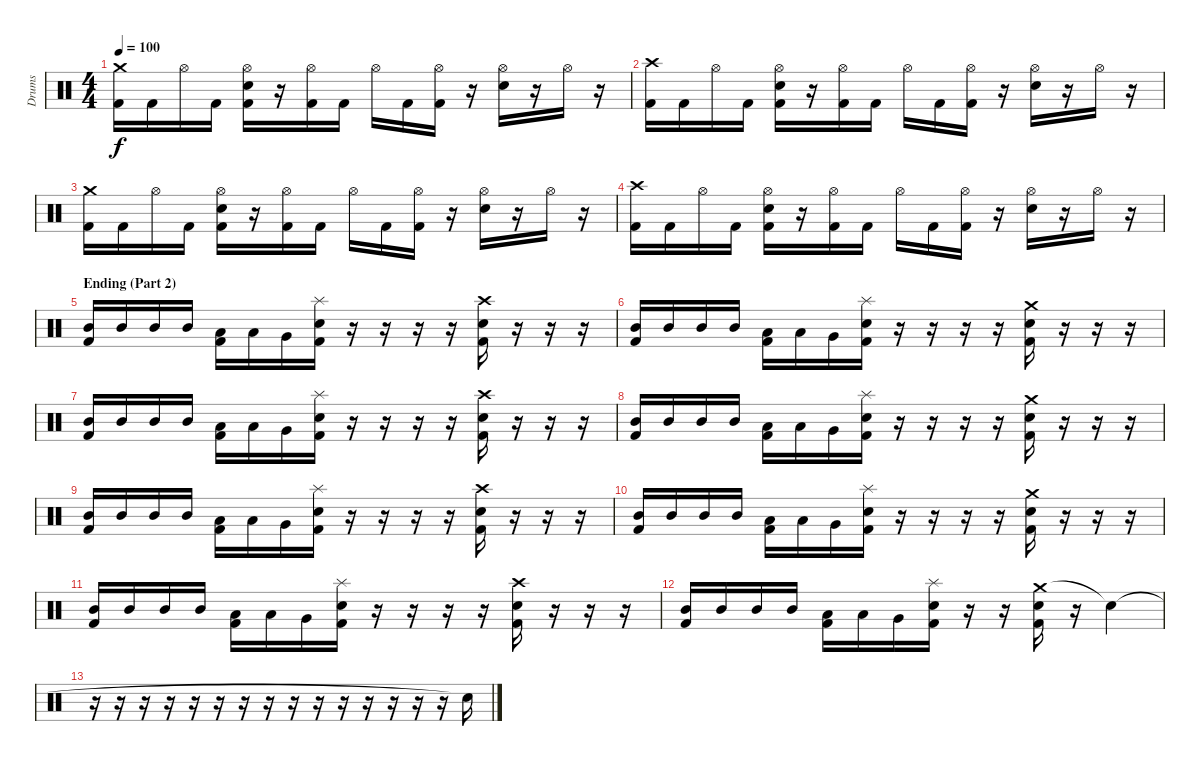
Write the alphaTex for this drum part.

\track ("Drums" "Drums") {instrument percussion}
\staff {score}
\articulation defaults
\ts (4 4)
\tempo 100
\clef neutral
\ks c
("Crash medium (hit)" "Kick (hit) 2").16{dy f} "Kick (hit) 2".16 "Hi-Hat (open)".16 "Kick (hit) 2".16 ("Hi-Hat (open)" "Snare (hit) 2" "Kick (hit) 2").16 r.16 ("Hi-Hat (open)" "Kick (hit) 2").16 "Kick (hit) 2".16 "Hi-Hat (open)".16 "Kick (hit) 2".16 ("Hi-Hat (open)" "Kick (hit) 2").16 r.16 ("Hi-Hat (open)" "Snare (hit) 2").16 r.16 "Hi-Hat (open)".16 r.16 |
("Crash high (hit)" "Kick (hit) 2").16 "Kick (hit) 2".16 "Hi-Hat (open)".16 "Kick (hit) 2".16 ("Hi-Hat (open)" "Snare (hit) 2" "Kick (hit) 2").16 r.16 ("Hi-Hat (open)" "Kick (hit) 2").16 "Kick (hit) 2".16 "Hi-Hat (open)".16 "Kick (hit) 2".16 ("Hi-Hat (open)" "Kick (hit) 2").16 r.16 ("Hi-Hat (open)" "Snare (hit) 2").16 r.16 "Hi-Hat (open)".16 r.16 |
("Crash medium (hit)" "Kick (hit) 2").16 "Kick (hit) 2".16 "Hi-Hat (open)".16 "Kick (hit) 2".16 ("Hi-Hat (open)" "Snare (hit) 2" "Kick (hit) 2").16 r.16 ("Hi-Hat (open)" "Kick (hit) 2").16 "Kick (hit) 2".16 "Hi-Hat (open)".16 "Kick (hit) 2".16 ("Hi-Hat (open)" "Kick (hit) 2").16 r.16 ("Hi-Hat (open)" "Snare (hit) 2").16 r.16 "Hi-Hat (open)".16 r.16 |
("Crash high (hit)" "Kick (hit) 2").16 "Kick (hit) 2".16 "Hi-Hat (open)".16 "Kick (hit) 2".16 ("Hi-Hat (open)" "Snare (hit) 2" "Kick (hit) 2").16 r.16 ("Hi-Hat (open)" "Kick (hit) 2").16 "Kick (hit) 2".16 "Hi-Hat (open)".16 "Kick (hit) 2".16 ("Hi-Hat (open)" "Kick (hit) 2").16 r.16 ("Hi-Hat (open)" "Snare (hit) 2").16 r.16 "Hi-Hat (open)".16 r.16 |
\section ("" "Ending (Part 2)")
("Mid Tom (hit)" "Kick (hit) 2").16 "Mid Tom (hit)".16 "Mid Tom (hit)".16 "Mid Tom (hit)".16 ("Low Tom (hit)" "Kick (hit) 2").16 "Low Tom (hit)".16 "Very Low Tom (hit)".16 ("Splash (hit)" "Snare (hit) 2" "Kick (hit) 2").16 r.16 r.16 r.16 r.16 ("Crash high (hit)" "Snare (hit) 2" "Kick (hit) 2").16 r.16 r.16 r.16 |
("Mid Tom (hit)" "Kick (hit) 2").16 "Mid Tom (hit)".16 "Mid Tom (hit)".16 "Mid Tom (hit)".16 ("Low Tom (hit)" "Kick (hit) 2").16 "Low Tom (hit)".16 "Very Low Tom (hit)".16 ("Splash (hit)" "Snare (hit) 2" "Kick (hit) 2").16 r.16 r.16 r.16 r.16 ("Crash medium (hit)" "Snare (hit) 2" "Kick (hit) 2").16 r.16 r.16 r.16 |
("Mid Tom (hit)" "Kick (hit) 2").16 "Mid Tom (hit)".16 "Mid Tom (hit)".16 "Mid Tom (hit)".16 ("Low Tom (hit)" "Kick (hit) 2").16 "Low Tom (hit)".16 "Very Low Tom (hit)".16 ("Splash (hit)" "Snare (hit) 2" "Kick (hit) 2").16 r.16 r.16 r.16 r.16 ("Crash high (hit)" "Snare (hit) 2" "Kick (hit) 2").16 r.16 r.16 r.16 |
("Mid Tom (hit)" "Kick (hit) 2").16 "Mid Tom (hit)".16 "Mid Tom (hit)".16 "Mid Tom (hit)".16 ("Low Tom (hit)" "Kick (hit) 2").16 "Low Tom (hit)".16 "Very Low Tom (hit)".16 ("Splash (hit)" "Snare (hit) 2" "Kick (hit) 2").16 r.16 r.16 r.16 r.16 ("Crash medium (hit)" "Snare (hit) 2" "Kick (hit) 2").16 r.16 r.16 r.16 |
("Mid Tom (hit)" "Kick (hit) 2").16 "Mid Tom (hit)".16 "Mid Tom (hit)".16 "Mid Tom (hit)".16 ("Low Tom (hit)" "Kick (hit) 2").16 "Low Tom (hit)".16 "Very Low Tom (hit)".16 ("Splash (hit)" "Snare (hit) 2" "Kick (hit) 2").16 r.16 r.16 r.16 r.16 ("Crash high (hit)" "Snare (hit) 2" "Kick (hit) 2").16 r.16 r.16 r.16 |
("Mid Tom (hit)" "Kick (hit) 2").16 "Mid Tom (hit)".16 "Mid Tom (hit)".16 "Mid Tom (hit)".16 ("Low Tom (hit)" "Kick (hit) 2").16 "Low Tom (hit)".16 "Very Low Tom (hit)".16 ("Splash (hit)" "Snare (hit) 2" "Kick (hit) 2").16 r.16 r.16 r.16 r.16 ("Crash medium (hit)" "Snare (hit) 2" "Kick (hit) 2").16 r.16 r.16 r.16 |
("Mid Tom (hit)" "Kick (hit) 2").16 "Mid Tom (hit)".16 "Mid Tom (hit)".16 "Mid Tom (hit)".16 ("Low Tom (hit)" "Kick (hit) 2").16 "Low Tom (hit)".16 "Very Low Tom (hit)".16 ("Splash (hit)" "Snare (hit) 2" "Kick (hit) 2").16 r.16 r.16 r.16 r.16 ("Crash high (hit)" "Snare (hit) 2" "Kick (hit) 2").16 r.16 r.16 r.16 |
("Mid Tom (hit)" "Kick (hit) 2").16 "Mid Tom (hit)".16 "Mid Tom (hit)".16 "Mid Tom (hit)".16 ("Low Tom (hit)" "Kick (hit) 2").16 "Low Tom (hit)".16 "Very Low Tom (hit)".16 ("Splash (hit)" "Snare (hit) 2" "Kick (hit) 2").16 r.16 r.16 ("Crash medium (hit)" "Snare (hit) 2" "Kick (hit) 2").16 r.16 "Snare (hit)"{t}.4 |
r.16 r.16 r.16 r.16 r.16 r.16 r.16 r.16 r.16 r.16 r.16 r.16 r.16 r.16 r.16 "Snare (hit)"{t}.16
